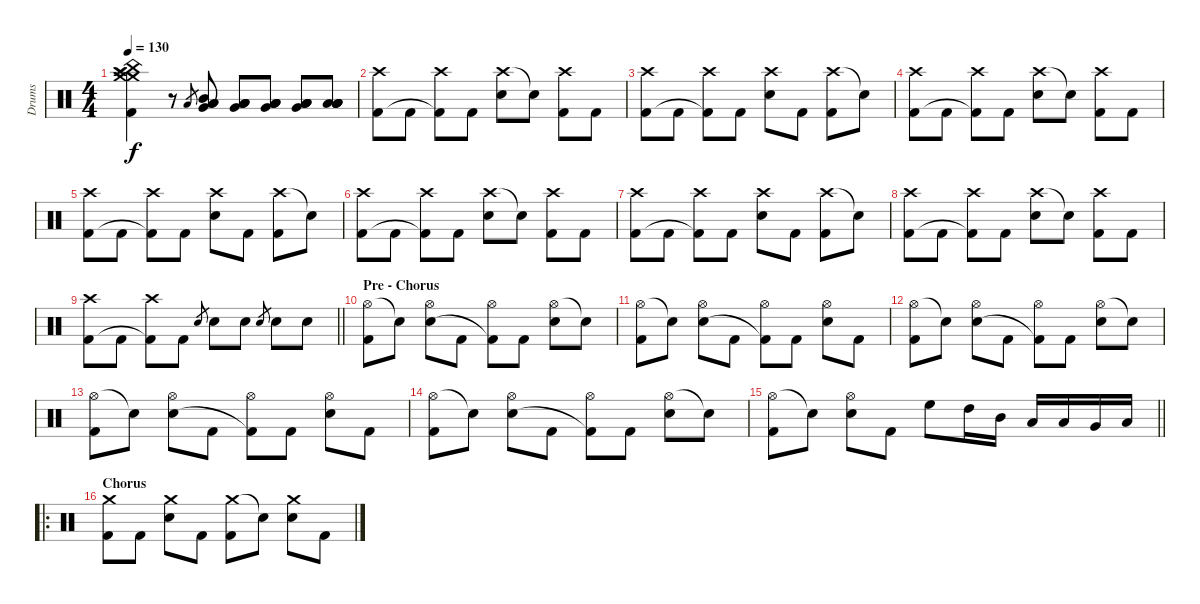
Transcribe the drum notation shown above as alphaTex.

\track ("Drums" "Drums") {instrument percussion}
\staff {score}
\articulation defaults
\ts (4 4)
\tempo 130
\clef neutral
\ks c
("Crash medium (hit)" "Splash (hit)" "China (hit)" "Crash high (hit)" "Crash medium (hit)" "Kick (hit) 2").4{dy f} r.8 "Low Tom (hit)".8{gr} ("Mid Tom (hit)" "Low Tom (hit)" "Very Low Tom (hit)" "Low Floor Tom (hit)").8 ("Low Tom (hit)" "Very Low Tom (hit)" "Low Floor Tom (hit)" "Low Floor Tom (hit)").8 ("Low Tom (hit)" "Very Low Tom (hit)" "Low Floor Tom (hit)" "Low Floor Tom (hit)").8 ("Very Low Tom (hit)" "Low Floor Tom (hit)" "Low Floor Tom (hit)" "Low Floor Tom (hit)").8 ("Low Floor Tom (hit)" "Low Floor Tom (hit)" "Low Floor Tom (hit)" "Low Floor Tom (hit)").8 |
("Crash high (hit)" "Kick (hit) 2").8 "Kick (hit) 2".8 ("Crash high (hit)" "Kick (hit) 2"{t}).8 "Kick (hit) 2".8 ("Crash high (hit)" "Electric Snare (hit)").8 "Snare (hit)"{t}.8 ("Crash high (hit)" "Kick (hit) 2").8 "Kick (hit) 2".8 |
("Crash high (hit)" "Kick (hit) 2").8 "Kick (hit) 2".8 ("Crash high (hit)" "Kick (hit) 2"{t}).8 "Kick (hit) 2".8 ("Crash high (hit)" "Electric Snare (hit)").8 "Kick (hit) 2".8 ("Crash high (hit)" "Kick (hit) 2").8 "Snare (hit)"{t}.8 |
("Crash high (hit)" "Kick (hit) 2").8 "Kick (hit) 2".8 ("Crash high (hit)" "Kick (hit) 2"{t}).8 "Kick (hit) 2".8 ("Crash high (hit)" "Electric Snare (hit)").8 "Snare (hit)"{t}.8 ("Crash high (hit)" "Kick (hit) 2").8 "Kick (hit) 2".8 |
("Crash high (hit)" "Kick (hit) 2").8 "Kick (hit) 2".8 ("Crash high (hit)" "Kick (hit) 2"{t}).8 "Kick (hit) 2".8 ("Crash high (hit)" "Electric Snare (hit)").8 "Kick (hit) 2".8 ("Crash high (hit)" "Kick (hit) 2").8 "Snare (hit)"{t}.8 |
("Crash high (hit)" "Kick (hit) 2").8 "Kick (hit) 2".8 ("Crash high (hit)" "Kick (hit) 2"{t}).8 "Kick (hit) 2".8 ("Crash high (hit)" "Electric Snare (hit)").8 "Snare (hit)"{t}.8 ("Crash high (hit)" "Kick (hit) 2").8 "Kick (hit) 2".8 |
("Crash high (hit)" "Kick (hit) 2").8 "Kick (hit) 2".8 ("Crash high (hit)" "Kick (hit) 2"{t}).8 "Kick (hit) 2".8 ("Crash high (hit)" "Electric Snare (hit)").8 "Kick (hit) 2".8 ("Crash high (hit)" "Kick (hit) 2").8 "Snare (hit)"{t}.8 |
("Crash high (hit)" "Kick (hit) 2").8 "Kick (hit) 2".8 ("Crash high (hit)" "Kick (hit) 2"{t}).8 "Kick (hit) 2".8 ("Crash high (hit)" "Electric Snare (hit)").8 "Snare (hit)"{t}.8 ("Crash high (hit)" "Kick (hit) 2").8 "Kick (hit) 2".8 |
\barLineRight lightlight
("Crash high (hit)" "Kick (hit) 2").8 "Kick (hit) 2".8 ("Crash high (hit)" "Kick (hit) 2"{t}).8 "Kick (hit) 2".8 "Electric Snare (hit)".8{gr} "Electric Snare (hit)".8 "Electric Snare (hit)".8 "Electric Snare (hit)".8{gr} "Electric Snare (hit)".8 "Electric Snare (hit)".8 |
\section ("" "Pre - Chorus")
("Hi-Hat (open)" "Kick (hit) 2").8 "Snare (hit)"{t}.8 ("Hi-Hat (open)" "Electric Snare (hit)").8 "Kick (hit) 2".8 ("Hi-Hat (open)" "Kick (hit) 2"{t}).8 "Kick (hit) 2".8 ("Hi-Hat (open)" "Electric Snare (hit)").8 "Snare (hit)"{t}.8 |
("Hi-Hat (open)" "Kick (hit) 2").8 "Snare (hit)"{t}.8 ("Hi-Hat (open)" "Electric Snare (hit)").8 "Kick (hit) 2".8 ("Hi-Hat (open)" "Kick (hit) 2"{t}).8 "Kick (hit) 2".8 ("Hi-Hat (open)" "Electric Snare (hit)").8 "Kick (hit) 2".8 |
("Hi-Hat (open)" "Kick (hit) 2").8 "Snare (hit)"{t}.8 ("Hi-Hat (open)" "Electric Snare (hit)").8 "Kick (hit) 2".8 ("Hi-Hat (open)" "Kick (hit) 2"{t}).8 "Kick (hit) 2".8 ("Hi-Hat (open)" "Electric Snare (hit)").8 "Snare (hit)"{t}.8 |
("Hi-Hat (open)" "Kick (hit) 2").8 "Snare (hit)"{t}.8 ("Hi-Hat (open)" "Electric Snare (hit)").8 "Kick (hit) 2".8 ("Hi-Hat (open)" "Kick (hit) 2"{t}).8 "Kick (hit) 2".8 ("Hi-Hat (open)" "Electric Snare (hit)").8 "Kick (hit) 2".8 |
("Hi-Hat (open)" "Kick (hit) 2").8 "Snare (hit)"{t}.8 ("Hi-Hat (open)" "Electric Snare (hit)").8 "Kick (hit) 2".8 ("Hi-Hat (open)" "Kick (hit) 2"{t}).8 "Kick (hit) 2".8 ("Hi-Hat (open)" "Electric Snare (hit)").8 "Snare (hit)"{t}.8 |
\barLineRight lightlight
("Hi-Hat (open)" "Kick (hit) 2").8 "Snare (hit)"{t}.8 ("Hi-Hat (open)" "Electric Snare (hit)").8 "Kick (hit) 2".8 "High Floor Tom (hit)".8 "High Tom (hit)".16 "Mid Tom (hit)".16 "Low Tom (hit)".16 "Low Tom (hit)".16 "Very Low Tom (hit)".16 "Low Floor Tom (hit)".16 |
\ro
\section ("" "Chorus")
("Crash medium (hit)" "Kick (hit) 2").8 "Kick (hit) 2".8 ("Crash medium (hit)" "Electric Snare (hit)").8 "Kick (hit) 2".8 ("Crash medium (hit)" "Kick (hit) 2").8 "Snare (hit)"{t}.8 ("Crash medium (hit)" "Electric Snare (hit)").8 "Kick (hit) 2".8
